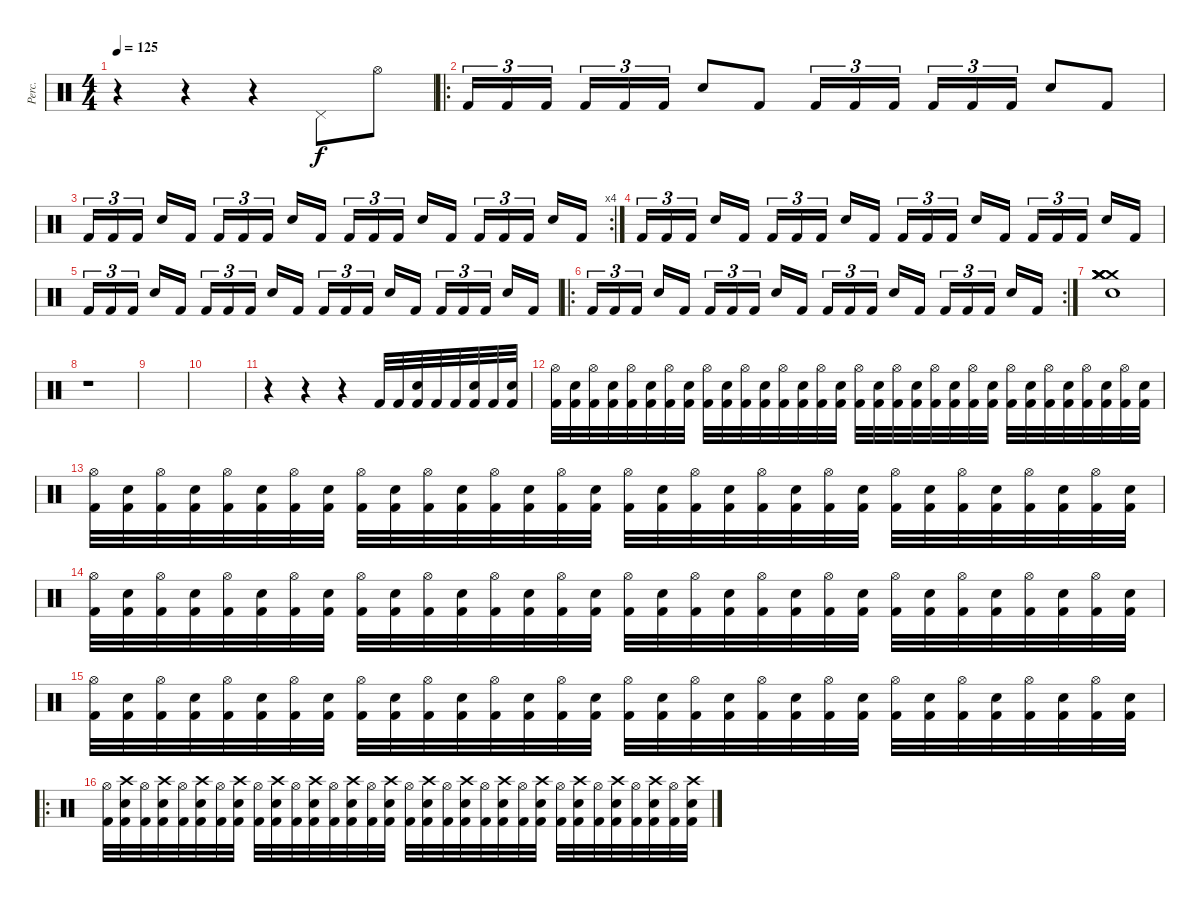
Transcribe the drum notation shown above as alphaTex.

\track ("Perc." "Perc.") {instrument percussion}
\staff {score}
\articulation defaults
\ts (4 4)
\tempo 125
\clef neutral
\ks c
r.4{dy f} r.4 r.4 "Pedal Hi-Hat (hit)".8 "Hi-Hat (open)".8 |
\ro "Kick (hit) 2".16{tu (3 2)} "Kick (hit) 2".16{tu (3 2)} "Kick (hit) 2".16{tu (3 2)} "Kick (hit) 2".16{tu (3 2)} "Kick (hit) 2".16{tu (3 2)} "Kick (hit) 2".16{tu (3 2)} "Snare (hit) 2".8 "Kick (hit) 2".8 "Kick (hit) 2".16{tu (3 2)} "Kick (hit) 2".16{tu (3 2)} "Kick (hit) 2".16{tu (3 2)} "Kick (hit) 2".16{tu (3 2)} "Kick (hit) 2".16{tu (3 2)} "Kick (hit) 2".16{tu (3 2)} "Snare (hit) 2".8 "Kick (hit) 2".8
|
\rc 4 "Kick (hit) 2".16{tu (3 2)} "Kick (hit) 2".16{tu (3 2)} "Kick (hit) 2".16{tu (3 2)} "Snare (hit) 2".16 "Kick (hit) 2".16 "Kick (hit) 2".16{tu (3 2)} "Kick (hit) 2".16{tu (3 2)} "Kick (hit) 2".16{tu (3 2)} "Snare (hit) 2".16 "Kick (hit) 2".16 "Kick (hit) 2".16{tu (3 2)} "Kick (hit) 2".16{tu (3 2)} "Kick (hit) 2".16{tu (3 2)} "Snare (hit) 2".16 "Kick (hit) 2".16 "Kick (hit) 2".16{tu (3 2)} "Kick (hit) 2".16{tu (3 2)} "Kick (hit) 2".16{tu (3 2)} "Snare (hit) 2".16 "Kick (hit) 2".16
|
"Kick (hit) 2".16{tu (3 2)} "Kick (hit) 2".16{tu (3 2)} "Kick (hit) 2".16{tu (3 2)} "Snare (hit) 2".16 "Kick (hit) 2".16 "Kick (hit) 2".16{tu (3 2)} "Kick (hit) 2".16{tu (3 2)} "Kick (hit) 2".16{tu (3 2)} "Snare (hit) 2".16 "Kick (hit) 2".16 "Kick (hit) 2".16{tu (3 2)} "Kick (hit) 2".16{tu (3 2)} "Kick (hit) 2".16{tu (3 2)} "Snare (hit) 2".16 "Kick (hit) 2".16 "Kick (hit) 2".16{tu (3 2)} "Kick (hit) 2".16{tu (3 2)} "Kick (hit) 2".16{tu (3 2)} "Snare (hit) 2".16 "Kick (hit) 2".16 |
"Kick (hit) 2".16{tu (3 2)} "Kick (hit) 2".16{tu (3 2)} "Kick (hit) 2".16{tu (3 2)} "Snare (hit) 2".16 "Kick (hit) 2".16 "Kick (hit) 2".16{tu (3 2)} "Kick (hit) 2".16{tu (3 2)} "Kick (hit) 2".16{tu (3 2)} "Snare (hit) 2".16 "Kick (hit) 2".16 "Kick (hit) 2".16{tu (3 2)} "Kick (hit) 2".16{tu (3 2)} "Kick (hit) 2".16{tu (3 2)} "Snare (hit) 2".16 "Kick (hit) 2".16 "Kick (hit) 2".16{tu (3 2)} "Kick (hit) 2".16{tu (3 2)} "Kick (hit) 2".16{tu (3 2)} "Snare (hit) 2".16 "Kick (hit) 2".16 |
\ro
\rc 2 "Kick (hit) 2".16{tu (3 2)} "Kick (hit) 2".16{tu (3 2)} "Kick (hit) 2".16{tu (3 2)} "Snare (hit) 2".16 "Kick (hit) 2".16 "Kick (hit) 2".16{tu (3 2)} "Kick (hit) 2".16{tu (3 2)} "Kick (hit) 2".16{tu (3 2)} "Snare (hit) 2".16 "Kick (hit) 2".16 "Kick (hit) 2".16{tu (3 2)} "Kick (hit) 2".16{tu (3 2)} "Kick (hit) 2".16{tu (3 2)} "Snare (hit) 2".16 "Kick (hit) 2".16 "Kick (hit) 2".16{tu (3 2)} "Kick (hit) 2".16{tu (3 2)} "Kick (hit) 2".16{tu (3 2)} "Snare (hit) 2".16 "Kick (hit) 2".16
|
("Crash medium (hit)" "Crash medium (hit)" "Crash medium (hit)" "Crash medium (hit)" "Crash medium (hit)" "Snare (hit) 2").1 |
r.1 |
|
|
r.4 r.4 r.4 "Kick (hit) 2".32 "Kick (hit) 2".32 ("Snare (hit) 2" "Kick (hit) 2").32 "Kick (hit) 2".32 "Kick (hit) 2".32 ("Snare (hit) 2" "Kick (hit) 2").32 "Kick (hit) 2".32 ("Snare (hit) 2" "Kick (hit) 2").32 |
("Hi-Hat (open)" "Kick (hit) 2").32 ("Snare (hit) 2" "Kick (hit) 2").32 ("Hi-Hat (open)" "Kick (hit) 2").32 ("Snare (hit) 2" "Kick (hit) 2").32 ("Hi-Hat (open)" "Kick (hit) 2").32 ("Snare (hit) 2" "Kick (hit) 2").32 ("Hi-Hat (open)" "Kick (hit) 2").32 ("Snare (hit) 2" "Kick (hit) 2").32 ("Hi-Hat (open)" "Kick (hit) 2").32 ("Snare (hit) 2" "Kick (hit) 2").32 ("Hi-Hat (open)" "Kick (hit) 2").32 ("Snare (hit) 2" "Kick (hit) 2").32 ("Hi-Hat (open)" "Kick (hit) 2").32 ("Snare (hit) 2" "Kick (hit) 2").32 ("Hi-Hat (open)" "Kick (hit) 2").32 ("Snare (hit) 2" "Kick (hit) 2").32 ("Hi-Hat (open)" "Kick (hit) 2").32 ("Snare (hit) 2" "Kick (hit) 2").32 ("Hi-Hat (open)" "Kick (hit) 2").32 ("Snare (hit) 2" "Kick (hit) 2").32 ("Hi-Hat (open)" "Kick (hit) 2").32 ("Snare (hit) 2" "Kick (hit) 2").32 ("Hi-Hat (open)" "Kick (hit) 2").32 ("Snare (hit) 2" "Kick (hit) 2").32 ("Hi-Hat (open)" "Kick (hit) 2").32 ("Snare (hit) 2" "Kick (hit) 2").32 ("Hi-Hat (open)" "Kick (hit) 2").32 ("Snare (hit) 2" "Kick (hit) 2").32 ("Hi-Hat (open)" "Kick (hit) 2").32 ("Snare (hit) 2" "Kick (hit) 2").32 ("Hi-Hat (open)" "Kick (hit) 2").32 ("Snare (hit) 2" "Kick (hit) 2").32 |
("Hi-Hat (open)" "Kick (hit) 2").32 ("Snare (hit) 2" "Kick (hit) 2").32 ("Hi-Hat (open)" "Kick (hit) 2").32 ("Snare (hit) 2" "Kick (hit) 2").32 ("Hi-Hat (open)" "Kick (hit) 2").32 ("Snare (hit) 2" "Kick (hit) 2").32 ("Hi-Hat (open)" "Kick (hit) 2").32 ("Snare (hit) 2" "Kick (hit) 2").32 ("Hi-Hat (open)" "Kick (hit) 2").32 ("Snare (hit) 2" "Kick (hit) 2").32 ("Hi-Hat (open)" "Kick (hit) 2").32 ("Snare (hit) 2" "Kick (hit) 2").32 ("Hi-Hat (open)" "Kick (hit) 2").32 ("Snare (hit) 2" "Kick (hit) 2").32 ("Hi-Hat (open)" "Kick (hit) 2").32 ("Snare (hit) 2" "Kick (hit) 2").32 ("Hi-Hat (open)" "Kick (hit) 2").32 ("Snare (hit) 2" "Kick (hit) 2").32 ("Hi-Hat (open)" "Kick (hit) 2").32 ("Snare (hit) 2" "Kick (hit) 2").32 ("Hi-Hat (open)" "Kick (hit) 2").32 ("Snare (hit) 2" "Kick (hit) 2").32 ("Hi-Hat (open)" "Kick (hit) 2").32 ("Snare (hit) 2" "Kick (hit) 2").32 ("Hi-Hat (open)" "Kick (hit) 2").32 ("Snare (hit) 2" "Kick (hit) 2").32 ("Hi-Hat (open)" "Kick (hit) 2").32 ("Snare (hit) 2" "Kick (hit) 2").32 ("Hi-Hat (open)" "Kick (hit) 2").32 ("Snare (hit) 2" "Kick (hit) 2").32 ("Hi-Hat (open)" "Kick (hit) 2").32 ("Snare (hit) 2" "Kick (hit) 2").32 |
("Hi-Hat (open)" "Kick (hit) 2").32 ("Snare (hit) 2" "Kick (hit) 2").32 ("Hi-Hat (open)" "Kick (hit) 2").32 ("Snare (hit) 2" "Kick (hit) 2").32 ("Hi-Hat (open)" "Kick (hit) 2").32 ("Snare (hit) 2" "Kick (hit) 2").32 ("Hi-Hat (open)" "Kick (hit) 2").32 ("Snare (hit) 2" "Kick (hit) 2").32 ("Hi-Hat (open)" "Kick (hit) 2").32 ("Snare (hit) 2" "Kick (hit) 2").32 ("Hi-Hat (open)" "Kick (hit) 2").32 ("Snare (hit) 2" "Kick (hit) 2").32 ("Hi-Hat (open)" "Kick (hit) 2").32 ("Snare (hit) 2" "Kick (hit) 2").32 ("Hi-Hat (open)" "Kick (hit) 2").32 ("Snare (hit) 2" "Kick (hit) 2").32 ("Hi-Hat (open)" "Kick (hit) 2").32 ("Snare (hit) 2" "Kick (hit) 2").32 ("Hi-Hat (open)" "Kick (hit) 2").32 ("Snare (hit) 2" "Kick (hit) 2").32 ("Hi-Hat (open)" "Kick (hit) 2").32 ("Snare (hit) 2" "Kick (hit) 2").32 ("Hi-Hat (open)" "Kick (hit) 2").32 ("Snare (hit) 2" "Kick (hit) 2").32 ("Hi-Hat (open)" "Kick (hit) 2").32 ("Snare (hit) 2" "Kick (hit) 2").32 ("Hi-Hat (open)" "Kick (hit) 2").32 ("Snare (hit) 2" "Kick (hit) 2").32 ("Hi-Hat (open)" "Kick (hit) 2").32 ("Snare (hit) 2" "Kick (hit) 2").32 ("Hi-Hat (open)" "Kick (hit) 2").32 ("Snare (hit) 2" "Kick (hit) 2").32 |
("Hi-Hat (open)" "Kick (hit) 2").32 ("Snare (hit) 2" "Kick (hit) 2").32 ("Hi-Hat (open)" "Kick (hit) 2").32 ("Snare (hit) 2" "Kick (hit) 2").32 ("Hi-Hat (open)" "Kick (hit) 2").32 ("Snare (hit) 2" "Kick (hit) 2").32 ("Hi-Hat (open)" "Kick (hit) 2").32 ("Snare (hit) 2" "Kick (hit) 2").32 ("Hi-Hat (open)" "Kick (hit) 2").32 ("Snare (hit) 2" "Kick (hit) 2").32 ("Hi-Hat (open)" "Kick (hit) 2").32 ("Snare (hit) 2" "Kick (hit) 2").32 ("Hi-Hat (open)" "Kick (hit) 2").32 ("Snare (hit) 2" "Kick (hit) 2").32 ("Hi-Hat (open)" "Kick (hit) 2").32 ("Snare (hit) 2" "Kick (hit) 2").32 ("Hi-Hat (open)" "Kick (hit) 2").32 ("Snare (hit) 2" "Kick (hit) 2").32 ("Hi-Hat (open)" "Kick (hit) 2").32 ("Snare (hit) 2" "Kick (hit) 2").32 ("Hi-Hat (open)" "Kick (hit) 2").32 ("Snare (hit) 2" "Kick (hit) 2").32 ("Hi-Hat (open)" "Kick (hit) 2").32 ("Snare (hit) 2" "Kick (hit) 2").32 ("Hi-Hat (open)" "Kick (hit) 2").32 ("Snare (hit) 2" "Kick (hit) 2").32 ("Hi-Hat (open)" "Kick (hit) 2").32 ("Snare (hit) 2" "Kick (hit) 2").32 ("Hi-Hat (open)" "Kick (hit) 2").32 ("Snare (hit) 2" "Kick (hit) 2").32 ("Hi-Hat (open)" "Kick (hit) 2").32 ("Snare (hit) 2" "Kick (hit) 2").32 |
\ro
("Hi-Hat (open)" "Kick (hit) 2").32 ("Crash high (hit)" "Snare (hit) 2" "Kick (hit) 2").32 ("Hi-Hat (open)" "Kick (hit) 2").32 ("Crash high (hit)" "Snare (hit) 2" "Kick (hit) 2").32 ("Hi-Hat (open)" "Kick (hit) 2").32 ("Crash high (hit)" "Snare (hit) 2" "Kick (hit) 2").32 ("Hi-Hat (open)" "Kick (hit) 2").32 ("Crash high (hit)" "Snare (hit) 2" "Kick (hit) 2").32 ("Hi-Hat (open)" "Kick (hit) 2").32 ("Crash high (hit)" "Snare (hit) 2" "Kick (hit) 2").32 ("Hi-Hat (open)" "Kick (hit) 2").32 ("Crash high (hit)" "Snare (hit) 2" "Kick (hit) 2").32 ("Hi-Hat (open)" "Kick (hit) 2").32 ("Crash high (hit)" "Snare (hit) 2" "Kick (hit) 2").32 ("Hi-Hat (open)" "Kick (hit) 2").32 ("Crash high (hit)" "Snare (hit) 2" "Kick (hit) 2").32 ("Hi-Hat (open)" "Kick (hit) 2").32 ("Crash high (hit)" "Snare (hit) 2" "Kick (hit) 2").32 ("Hi-Hat (open)" "Kick (hit) 2").32 ("Crash high (hit)" "Snare (hit) 2" "Kick (hit) 2").32 ("Hi-Hat (open)" "Kick (hit) 2").32 ("Crash high (hit)" "Snare (hit) 2" "Kick (hit) 2").32 ("Hi-Hat (open)" "Kick (hit) 2").32 ("Crash high (hit)" "Snare (hit) 2" "Kick (hit) 2").32 ("Hi-Hat (open)" "Kick (hit) 2").32 ("Crash high (hit)" "Snare (hit) 2" "Kick (hit) 2").32 ("Hi-Hat (open)" "Kick (hit) 2").32 ("Crash high (hit)" "Snare (hit) 2" "Kick (hit) 2").32 ("Hi-Hat (open)" "Kick (hit) 2").32 ("Crash high (hit)" "Snare (hit) 2" "Kick (hit) 2").32 ("Hi-Hat (open)" "Kick (hit) 2").32 ("Crash high (hit)" "Snare (hit) 2" "Kick (hit) 2").32
